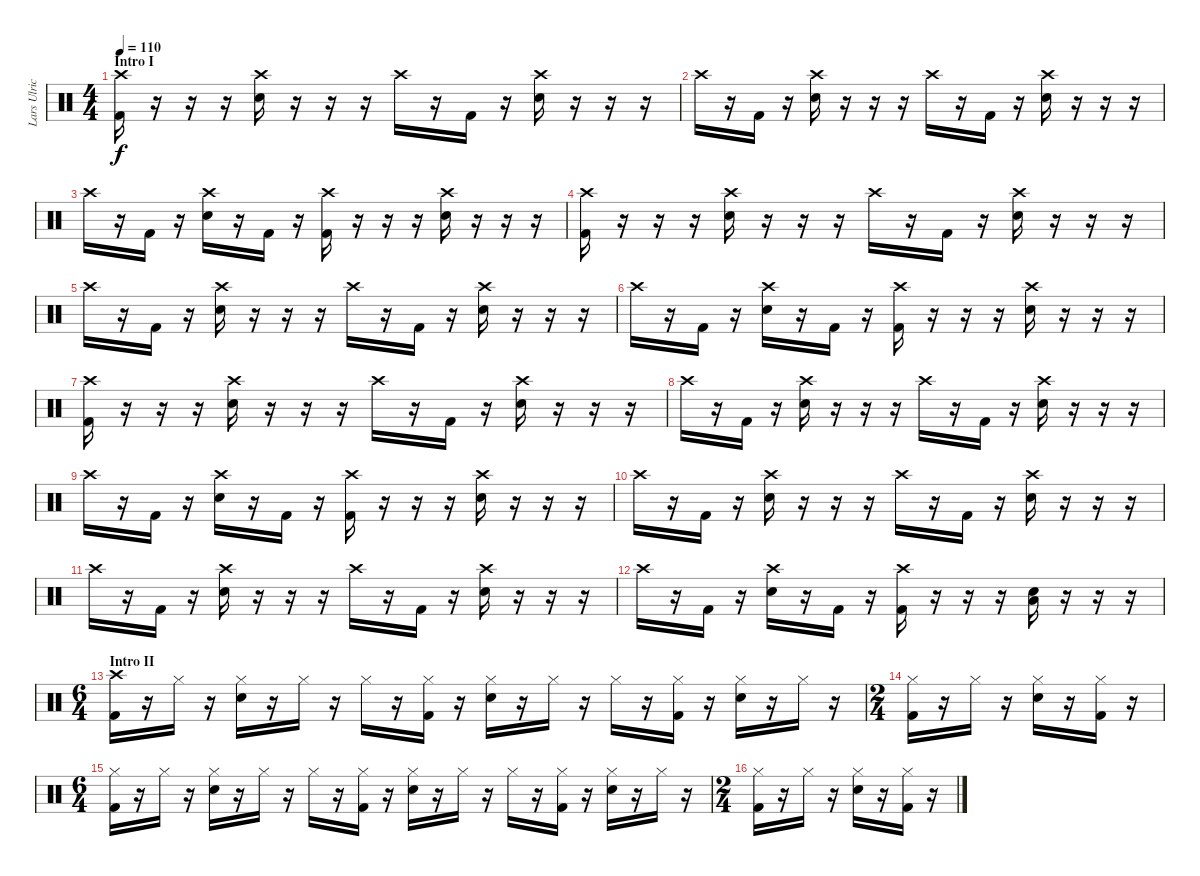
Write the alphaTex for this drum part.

\track ("Lars Ulrich - Drums" "Lars Ulric") {instrument percussion}
\staff {score}
\articulation defaults
\ts (4 4)
\section ("" "Intro I")
\tempo 110
\clef neutral
\ks c
("Crash high (hit)" "Kick (hit) 2").16{dy f} r.16 r.16 r.16 ("Crash high (hit)" "Snare (hit) 2").16 r.16 r.16 r.16 "Crash high (hit)".16 r.16 "Kick (hit) 2".16 r.16 ("Crash high (hit)" "Snare (hit) 2").16 r.16 r.16 r.16 |
"Crash high (hit)".16 r.16 "Kick (hit) 2".16 r.16 ("Crash high (hit)" "Snare (hit) 2").16 r.16 r.16 r.16 "Crash high (hit)".16 r.16 "Kick (hit) 2".16 r.16 ("Crash high (hit)" "Snare (hit) 2").16 r.16 r.16 r.16 |
"Crash high (hit)".16 r.16 "Kick (hit) 2".16 r.16 ("Crash high (hit)" "Snare (hit) 2").16 r.16 "Kick (hit) 2".16 r.16 ("Crash high (hit)" "Kick (hit) 2").16 r.16 r.16 r.16 ("Crash high (hit)" "Snare (hit) 2").16 r.16 r.16 r.16 |
("Crash high (hit)" "Kick (hit) 2").16 r.16 r.16 r.16 ("Crash high (hit)" "Snare (hit) 2").16 r.16 r.16 r.16 "Crash high (hit)".16 r.16 "Kick (hit) 2".16 r.16 ("Crash high (hit)" "Snare (hit) 2").16 r.16 r.16 r.16 |
"Crash high (hit)".16 r.16 "Kick (hit) 2".16 r.16 ("Crash high (hit)" "Snare (hit) 2").16 r.16 r.16 r.16 "Crash high (hit)".16 r.16 "Kick (hit) 2".16 r.16 ("Crash high (hit)" "Snare (hit) 2").16 r.16 r.16 r.16 |
"Crash high (hit)".16 r.16 "Kick (hit) 2".16 r.16 ("Crash high (hit)" "Snare (hit) 2").16 r.16 "Kick (hit) 2".16 r.16 ("Crash high (hit)" "Kick (hit) 2").16 r.16 r.16 r.16 ("Crash high (hit)" "Snare (hit) 2").16 r.16 r.16 r.16 |
("Crash high (hit)" "Kick (hit) 2").16 r.16 r.16 r.16 ("Crash high (hit)" "Snare (hit) 2").16 r.16 r.16 r.16 "Crash high (hit)".16 r.16 "Kick (hit) 2".16 r.16 ("Crash high (hit)" "Snare (hit) 2").16 r.16 r.16 r.16 |
"Crash high (hit)".16 r.16 "Kick (hit) 2".16 r.16 ("Crash high (hit)" "Snare (hit) 2").16 r.16 r.16 r.16 "Crash high (hit)".16 r.16 "Kick (hit) 2".16 r.16 ("Crash high (hit)" "Snare (hit) 2").16 r.16 r.16 r.16 |
"Crash high (hit)".16 r.16 "Kick (hit) 2".16 r.16 ("Crash high (hit)" "Snare (hit) 2").16 r.16 "Kick (hit) 2".16 r.16 ("Crash high (hit)" "Kick (hit) 2").16 r.16 r.16 r.16 ("Crash high (hit)" "Snare (hit) 2").16 r.16 r.16 r.16 |
"Crash high (hit)".16 r.16 "Kick (hit) 2".16 r.16 ("Crash high (hit)" "Snare (hit) 2").16 r.16 r.16 r.16 "Crash high (hit)".16 r.16 "Kick (hit) 2".16 r.16 ("Crash high (hit)" "Snare (hit) 2").16 r.16 r.16 r.16 |
"Crash high (hit)".16 r.16 "Kick (hit) 2".16 r.16 ("Crash high (hit)" "Snare (hit) 2").16 r.16 r.16 r.16 "Crash high (hit)".16 r.16 "Kick (hit) 2".16 r.16 ("Crash high (hit)" "Snare (hit) 2").16 r.16 r.16 r.16 |
"Crash high (hit)".16 r.16 "Kick (hit) 2".16 r.16 ("Crash high (hit)" "Snare (hit) 2").16 r.16 "Kick (hit) 2".16 r.16 ("Crash high (hit)" "Kick (hit) 2").16 r.16 r.16 r.16 ("Snare (hit) 2" "Low Floor Tom (hit)").16 r.16 r.16 r.16 |
\ts (6 4)
\section ("" "Intro II")
("Crash high (hit)" "Kick (hit) 2").16 r.16 "Hi-Hat (closed)".16 r.16 ("Hi-Hat (closed)" "Snare (hit) 2").16 r.16 "Hi-Hat (closed)".16 r.16 "Hi-Hat (closed)".16 r.16 ("Hi-Hat (closed)" "Kick (hit) 2").16 r.16 ("Hi-Hat (closed)" "Snare (hit) 2").16 r.16 "Hi-Hat (closed)".16 r.16 "Hi-Hat (closed)".16 r.16 ("Hi-Hat (closed)" "Kick (hit) 2").16 r.16 ("Hi-Hat (closed)" "Snare (hit) 2").16 r.16 "Hi-Hat (closed)".16 r.16 |
\ts (2 4)
("Hi-Hat (closed)" "Kick (hit) 2").16 r.16 "Hi-Hat (closed)".16 r.16 ("Hi-Hat (closed)" "Snare (hit) 2").16 r.16 ("Hi-Hat (closed)" "Kick (hit) 2").16 r.16 |
\ts (6 4)
("Hi-Hat (closed)" "Kick (hit) 2").16 r.16 "Hi-Hat (closed)".16 r.16 ("Hi-Hat (closed)" "Snare (hit) 2").16 r.16 "Hi-Hat (closed)".16 r.16 "Hi-Hat (closed)".16 r.16 ("Hi-Hat (closed)" "Kick (hit) 2").16 r.16 ("Hi-Hat (closed)" "Snare (hit) 2").16 r.16 "Hi-Hat (closed)".16 r.16 "Hi-Hat (closed)".16 r.16 ("Hi-Hat (closed)" "Kick (hit) 2").16 r.16 ("Hi-Hat (closed)" "Snare (hit) 2").16 r.16 "Hi-Hat (closed)".16 r.16 |
\ts (2 4)
("Hi-Hat (closed)" "Kick (hit) 2").16 r.16 "Hi-Hat (closed)".16 r.16 ("Hi-Hat (closed)" "Snare (hit) 2").16 r.16 ("Hi-Hat (closed)" "Kick (hit) 2").16 r.16
